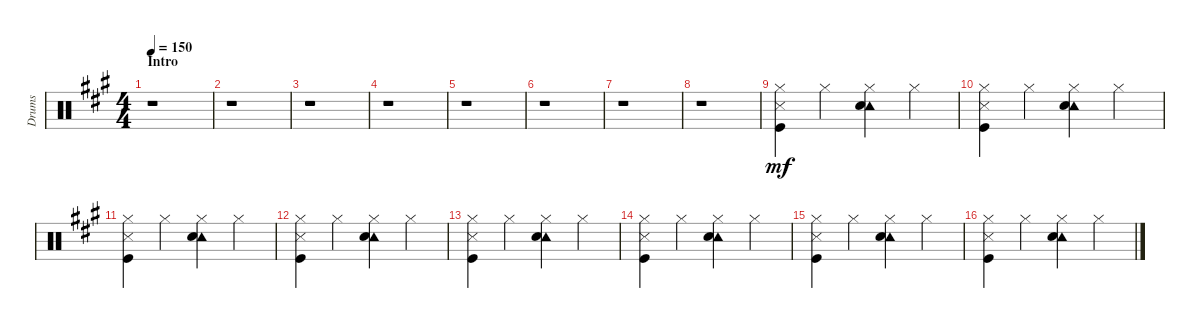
\track ("Drums" "Drums") {instrument percussion}
\staff {score}
\articulation defaults
\ts (4 4)
\section ("" "Intro")
\tempo 150
\clef neutral
\ks a
r.1{dy mf} |
r.1 |
r.1 |
r.1 |
r.1 |
r.1 |
r.1 |
r.1 |
("Hi-Hat (closed)" "Metronome (hit)" "Kick (hit)").4 "Hi-Hat (closed)".4 ("Tambourine (hit)" "Hi-Hat (closed)" "Electric Snare (hit)").4 "Hi-Hat (closed)".4 |
("Hi-Hat (closed)" "Metronome (hit)" "Kick (hit)").4 "Hi-Hat (closed)".4 ("Tambourine (hit)" "Hi-Hat (closed)" "Electric Snare (hit)").4 "Hi-Hat (closed)".4 |
("Hi-Hat (closed)" "Metronome (hit)" "Kick (hit)").4 "Hi-Hat (closed)".4 ("Tambourine (hit)" "Hi-Hat (closed)" "Electric Snare (hit)").4 "Hi-Hat (closed)".4 |
("Hi-Hat (closed)" "Metronome (hit)" "Kick (hit)").4 "Hi-Hat (closed)".4 ("Tambourine (hit)" "Hi-Hat (closed)" "Electric Snare (hit)").4 "Hi-Hat (closed)".4 |
("Hi-Hat (closed)" "Metronome (hit)" "Kick (hit)").4 "Hi-Hat (closed)".4 ("Tambourine (hit)" "Hi-Hat (closed)" "Electric Snare (hit)").4 "Hi-Hat (closed)".4 |
("Hi-Hat (closed)" "Metronome (hit)" "Kick (hit)").4 "Hi-Hat (closed)".4 ("Tambourine (hit)" "Hi-Hat (closed)" "Electric Snare (hit)").4 "Hi-Hat (closed)".4 |
("Hi-Hat (closed)" "Metronome (hit)" "Kick (hit)").4 "Hi-Hat (closed)".4 ("Tambourine (hit)" "Hi-Hat (closed)" "Electric Snare (hit)").4 "Hi-Hat (closed)".4 |
("Hi-Hat (closed)" "Metronome (hit)" "Kick (hit)").4 "Hi-Hat (closed)".4 ("Tambourine (hit)" "Hi-Hat (closed)" "Electric Snare (hit)").4 "Hi-Hat (closed)".4
